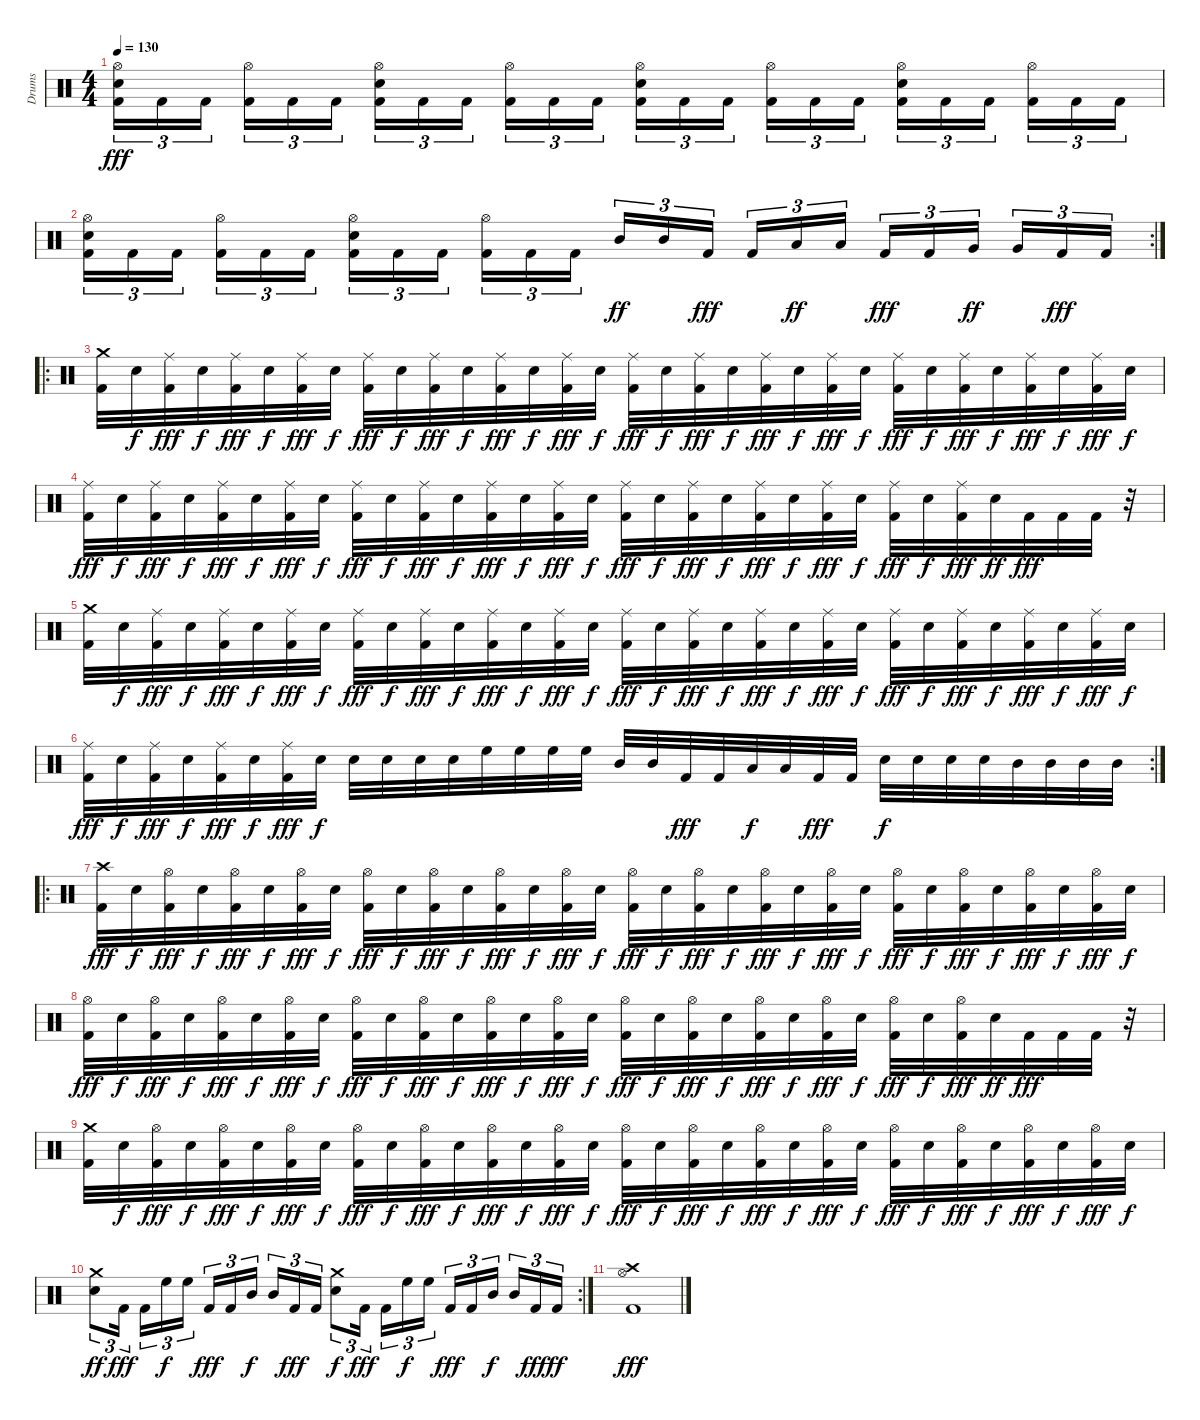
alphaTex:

\track ("Drums" "Drums") {instrument percussion}
\staff {score}
\articulation defaults
\ts (4 4)
\tempo 130
\clef neutral
\ks c
("Hi-Hat (open)" "Electric Snare (hit)" "Kick (hit) 2").16{tu (3 2) dy fff} "Kick (hit) 2".16{tu (3 2)} "Kick (hit) 2".16{tu (3 2)} ("Hi-Hat (open)" "Kick (hit) 2").16{tu (3 2)} "Kick (hit) 2".16{tu (3 2)} "Kick (hit) 2".16{tu (3 2)} ("Hi-Hat (open)" "Electric Snare (hit)" "Kick (hit) 2").16{tu (3 2)} "Kick (hit) 2".16{tu (3 2)} "Kick (hit) 2".16{tu (3 2)} ("Hi-Hat (open)" "Kick (hit) 2").16{tu (3 2)} "Kick (hit) 2".16{tu (3 2)} "Kick (hit) 2".16{tu (3 2)} ("Hi-Hat (open)" "Electric Snare (hit)" "Kick (hit) 2").16{tu (3 2)} "Kick (hit) 2".16{tu (3 2)} "Kick (hit) 2".16{tu (3 2)} ("Hi-Hat (open)" "Kick (hit) 2").16{tu (3 2)} "Kick (hit) 2".16{tu (3 2)} "Kick (hit) 2".16{tu (3 2)} ("Hi-Hat (open)" "Electric Snare (hit)" "Kick (hit) 2").16{tu (3 2)} "Kick (hit) 2".16{tu (3 2)} "Kick (hit) 2".16{tu (3 2)} ("Hi-Hat (open)" "Kick (hit) 2").16{tu (3 2)} "Kick (hit) 2".16{tu (3 2)} "Kick (hit) 2".16{tu (3 2)} |
\rc 2
("Hi-Hat (open)" "Electric Snare (hit)" "Kick (hit) 2").16{tu (3 2)} "Kick (hit) 2".16{tu (3 2)} "Kick (hit) 2".16{tu (3 2)} ("Hi-Hat (open)" "Kick (hit) 2").16{tu (3 2)} "Kick (hit) 2".16{tu (3 2)} "Kick (hit) 2".16{tu (3 2)} ("Hi-Hat (open)" "Electric Snare (hit)" "Kick (hit) 2").16{tu (3 2)} "Kick (hit) 2".16{tu (3 2)} "Kick (hit) 2".16{tu (3 2)} ("Hi-Hat (open)" "Kick (hit) 2").16{tu (3 2)} "Kick (hit) 2".16{tu (3 2)} "Kick (hit) 2".16{tu (3 2)} "Mid Tom (hit)".16{tu (3 2) dy ff} "Mid Tom (hit)".16{tu (3 2)} "Kick (hit) 2".16{tu (3 2) dy fff} "Kick (hit) 2".16{tu (3 2)} "Low Tom (hit)".16{tu (3 2) dy ff} "Low Tom (hit)".16{tu (3 2)} "Kick (hit) 2".16{tu (3 2) dy fff} "Kick (hit) 2".16{tu (3 2)} "Very Low Tom (hit)".16{tu (3 2) dy ff} "Very Low Tom (hit)".16{tu (3 2)} "Kick (hit) 2".16{tu (3 2) dy fff} "Kick (hit) 2".16{tu (3 2)} |
\ro
("Crash medium (hit)" "Kick (hit) 2").32 "Electric Snare (hit)".32{dy f} ("Ride (middle)" "Kick (hit) 2").32{dy fff} "Electric Snare (hit)".32{dy f} ("Ride (middle)" "Kick (hit) 2").32{dy fff} "Electric Snare (hit)".32{dy f} ("Ride (middle)" "Kick (hit) 2").32{dy fff} "Electric Snare (hit)".32{dy f} ("Ride (middle)" "Kick (hit) 2").32{dy fff} "Electric Snare (hit)".32{dy f} ("Ride (middle)" "Kick (hit) 2").32{dy fff} "Electric Snare (hit)".32{dy f} ("Ride (middle)" "Kick (hit) 2").32{dy fff} "Electric Snare (hit)".32{dy f} ("Ride (middle)" "Kick (hit) 2").32{dy fff} "Electric Snare (hit)".32{dy f} ("Ride (middle)" "Kick (hit) 2").32{dy fff} "Electric Snare (hit)".32{dy f} ("Ride (middle)" "Kick (hit) 2").32{dy fff} "Electric Snare (hit)".32{dy f} ("Ride (middle)" "Kick (hit) 2").32{dy fff} "Electric Snare (hit)".32{dy f} ("Ride (middle)" "Kick (hit) 2").32{dy fff} "Electric Snare (hit)".32{dy f} ("Ride (middle)" "Kick (hit) 2").32{dy fff} "Electric Snare (hit)".32{dy f} ("Ride (middle)" "Kick (hit) 2").32{dy fff} "Electric Snare (hit)".32{dy f} ("Ride (middle)" "Kick (hit) 2").32{dy fff} "Electric Snare (hit)".32{dy f} ("Ride (middle)" "Kick (hit) 2").32{dy fff} "Electric Snare (hit)".32{dy f} |
("Ride (middle)" "Kick (hit) 2").32{dy fff} "Electric Snare (hit)".32{dy f} ("Ride (middle)" "Kick (hit) 2").32{dy fff} "Electric Snare (hit)".32{dy f} ("Ride (middle)" "Kick (hit) 2").32{dy fff} "Electric Snare (hit)".32{dy f} ("Ride (middle)" "Kick (hit) 2").32{dy fff} "Electric Snare (hit)".32{dy f} ("Ride (middle)" "Kick (hit) 2").32{dy fff} "Electric Snare (hit)".32{dy f} ("Ride (middle)" "Kick (hit) 2").32{dy fff} "Electric Snare (hit)".32{dy f} ("Ride (middle)" "Kick (hit) 2").32{dy fff} "Electric Snare (hit)".32{dy f} ("Ride (middle)" "Kick (hit) 2").32{dy fff} "Electric Snare (hit)".32{dy f} ("Ride (middle)" "Kick (hit) 2").32{dy fff} "Electric Snare (hit)".32{dy f} ("Ride (middle)" "Kick (hit) 2").32{dy fff} "Electric Snare (hit)".32{dy f} ("Ride (middle)" "Kick (hit) 2").32{dy fff} "Electric Snare (hit)".32{dy f} ("Ride (middle)" "Kick (hit) 2").32{dy fff} "Electric Snare (hit)".32{dy f} ("Ride (middle)" "Kick (hit) 2").32{dy fff} "Electric Snare (hit)".32{dy f} ("Ride (middle)" "Kick (hit) 2").32{dy fff} "Electric Snare (hit)".32{dy ff} "Kick (hit) 2".32{dy fff} "Kick (hit) 2".32 "Kick (hit) 2".32 r.32 |
("Crash medium (hit)" "Kick (hit) 2").32 "Electric Snare (hit)".32{dy f} ("Ride (middle)" "Kick (hit) 2").32{dy fff} "Electric Snare (hit)".32{dy f} ("Ride (middle)" "Kick (hit) 2").32{dy fff} "Electric Snare (hit)".32{dy f} ("Ride (middle)" "Kick (hit) 2").32{dy fff} "Electric Snare (hit)".32{dy f} ("Ride (middle)" "Kick (hit) 2").32{dy fff} "Electric Snare (hit)".32{dy f} ("Ride (middle)" "Kick (hit) 2").32{dy fff} "Electric Snare (hit)".32{dy f} ("Ride (middle)" "Kick (hit) 2").32{dy fff} "Electric Snare (hit)".32{dy f} ("Ride (middle)" "Kick (hit) 2").32{dy fff} "Electric Snare (hit)".32{dy f} ("Ride (middle)" "Kick (hit) 2").32{dy fff} "Electric Snare (hit)".32{dy f} ("Ride (middle)" "Kick (hit) 2").32{dy fff} "Electric Snare (hit)".32{dy f} ("Ride (middle)" "Kick (hit) 2").32{dy fff} "Electric Snare (hit)".32{dy f} ("Ride (middle)" "Kick (hit) 2").32{dy fff} "Electric Snare (hit)".32{dy f} ("Ride (middle)" "Kick (hit) 2").32{dy fff} "Electric Snare (hit)".32{dy f} ("Ride (middle)" "Kick (hit) 2").32{dy fff} "Electric Snare (hit)".32{dy f} ("Ride (middle)" "Kick (hit) 2").32{dy fff} "Electric Snare (hit)".32{dy f} ("Ride (middle)" "Kick (hit) 2").32{dy fff} "Electric Snare (hit)".32{dy f} |
\rc 2
("Ride (middle)" "Kick (hit) 2").32{dy fff} "Electric Snare (hit)".32{dy f} ("Ride (middle)" "Kick (hit) 2").32{dy fff} "Electric Snare (hit)".32{dy f} ("Ride (middle)" "Kick (hit) 2").32{dy fff} "Electric Snare (hit)".32{dy f} ("Ride (middle)" "Kick (hit) 2").32{dy fff} "Electric Snare (hit)".32{dy f} "Electric Snare (hit)".32 "Electric Snare (hit)".32 "Electric Snare (hit)".32 "Electric Snare (hit)".32 "High Floor Tom (hit)".32 "High Floor Tom (hit)".32 "High Floor Tom (hit)".32 "High Floor Tom (hit)".32 "Mid Tom (hit)".32 "Mid Tom (hit)".32 "Kick (hit) 2".32{dy fff} "Kick (hit) 2".32 "Low Tom (hit)".32{dy f} "Low Tom (hit)".32 "Kick (hit) 2".32{dy fff} "Kick (hit) 2".32 "Electric Snare (hit)".32{dy f} "Electric Snare (hit)".32 "Electric Snare (hit)".32 "Electric Snare (hit)".32 "Mid Tom (hit)".32 "Mid Tom (hit)".32 "Mid Tom (hit)".32 "Mid Tom (hit)".32 |
\ro
("Crash high (hit)" "Kick (hit) 2").32{dy fff} "Electric Snare (hit)".32{dy f} ("Hi-Hat (open)" "Kick (hit) 2").32{dy fff} "Electric Snare (hit)".32{dy f} ("Hi-Hat (open)" "Kick (hit) 2").32{dy fff} "Electric Snare (hit)".32{dy f} ("Hi-Hat (open)" "Kick (hit) 2").32{dy fff} "Electric Snare (hit)".32{dy f} ("Hi-Hat (open)" "Kick (hit) 2").32{dy fff} "Electric Snare (hit)".32{dy f} ("Hi-Hat (open)" "Kick (hit) 2").32{dy fff} "Electric Snare (hit)".32{dy f} ("Hi-Hat (open)" "Kick (hit) 2").32{dy fff} "Electric Snare (hit)".32{dy f} ("Hi-Hat (open)" "Kick (hit) 2").32{dy fff} "Electric Snare (hit)".32{dy f} ("Hi-Hat (open)" "Kick (hit) 2").32{dy fff} "Electric Snare (hit)".32{dy f} ("Hi-Hat (open)" "Kick (hit) 2").32{dy fff} "Electric Snare (hit)".32{dy f} ("Hi-Hat (open)" "Kick (hit) 2").32{dy fff} "Electric Snare (hit)".32{dy f} ("Hi-Hat (open)" "Kick (hit) 2").32{dy fff} "Electric Snare (hit)".32{dy f} ("Hi-Hat (open)" "Kick (hit) 2").32{dy fff} "Electric Snare (hit)".32{dy f} ("Hi-Hat (open)" "Kick (hit) 2").32{dy fff} "Electric Snare (hit)".32{dy f} ("Hi-Hat (open)" "Kick (hit) 2").32{dy fff} "Electric Snare (hit)".32{dy f} ("Hi-Hat (open)" "Kick (hit) 2").32{dy fff} "Electric Snare (hit)".32{dy f} |
("Hi-Hat (open)" "Kick (hit) 2").32{dy fff} "Electric Snare (hit)".32{dy f} ("Hi-Hat (open)" "Kick (hit) 2").32{dy fff} "Electric Snare (hit)".32{dy f} ("Hi-Hat (open)" "Kick (hit) 2").32{dy fff} "Electric Snare (hit)".32{dy f} ("Hi-Hat (open)" "Kick (hit) 2").32{dy fff} "Electric Snare (hit)".32{dy f} ("Hi-Hat (open)" "Kick (hit) 2").32{dy fff} "Electric Snare (hit)".32{dy f} ("Hi-Hat (open)" "Kick (hit) 2").32{dy fff} "Electric Snare (hit)".32{dy f} ("Hi-Hat (open)" "Kick (hit) 2").32{dy fff} "Electric Snare (hit)".32{dy f} ("Hi-Hat (open)" "Kick (hit) 2").32{dy fff} "Electric Snare (hit)".32{dy f} ("Hi-Hat (open)" "Kick (hit) 2").32{dy fff} "Electric Snare (hit)".32{dy f} ("Hi-Hat (open)" "Kick (hit) 2").32{dy fff} "Electric Snare (hit)".32{dy f} ("Hi-Hat (open)" "Kick (hit) 2").32{dy fff} "Electric Snare (hit)".32{dy f} ("Hi-Hat (open)" "Kick (hit) 2").32{dy fff} "Electric Snare (hit)".32{dy f} ("Hi-Hat (open)" "Kick (hit) 2").32{dy fff} "Electric Snare (hit)".32{dy f} ("Hi-Hat (open)" "Kick (hit) 2").32{dy fff} "Electric Snare (hit)".32{dy ff} "Kick (hit) 2".32{dy fff} "Kick (hit) 2".32 "Kick (hit) 2".32 r.32 |
("Crash medium (hit)" "Kick (hit) 2").32 "Electric Snare (hit)".32{dy f} ("Hi-Hat (open)" "Kick (hit) 2").32{dy fff} "Electric Snare (hit)".32{dy f} ("Hi-Hat (open)" "Kick (hit) 2").32{dy fff} "Electric Snare (hit)".32{dy f} ("Hi-Hat (open)" "Kick (hit) 2").32{dy fff} "Electric Snare (hit)".32{dy f} ("Hi-Hat (open)" "Kick (hit) 2").32{dy fff} "Electric Snare (hit)".32{dy f} ("Hi-Hat (open)" "Kick (hit) 2").32{dy fff} "Electric Snare (hit)".32{dy f} ("Hi-Hat (open)" "Kick (hit) 2").32{dy fff} "Electric Snare (hit)".32{dy f} ("Hi-Hat (open)" "Kick (hit) 2").32{dy fff} "Electric Snare (hit)".32{dy f} ("Hi-Hat (open)" "Kick (hit) 2").32{dy fff} "Electric Snare (hit)".32{dy f} ("Hi-Hat (open)" "Kick (hit) 2").32{dy fff} "Electric Snare (hit)".32{dy f} ("Hi-Hat (open)" "Kick (hit) 2").32{dy fff} "Electric Snare (hit)".32{dy f} ("Hi-Hat (open)" "Kick (hit) 2").32{dy fff} "Electric Snare (hit)".32{dy f} ("Hi-Hat (open)" "Kick (hit) 2").32{dy fff} "Electric Snare (hit)".32{dy f} ("Hi-Hat (open)" "Kick (hit) 2").32{dy fff} "Electric Snare (hit)".32{dy f} ("Hi-Hat (open)" "Kick (hit) 2").32{dy fff} "Electric Snare (hit)".32{dy f} ("Hi-Hat (open)" "Kick (hit) 2").32{dy fff} "Electric Snare (hit)".32{dy f} |
\rc 2
("Crash medium (hit)" "Electric Snare (hit)").8{tu (3 2) dy ff} "Kick (hit) 2".16{tu (3 2) dy fff} "Kick (hit) 2".16{tu (3 2)} "High Floor Tom (hit)".16{tu (3 2) dy f} "High Floor Tom (hit)".16{tu (3 2)} "Kick (hit) 2".16{tu (3 2) dy fff} "Kick (hit) 2".16{tu (3 2)} "Mid Tom (hit)".16{tu (3 2) dy f} "Mid Tom (hit)".16{tu (3 2)} "Kick (hit) 2".16{tu (3 2) dy fff} "Kick (hit) 2".16{tu (3 2)} ("Crash medium (hit)" "Electric Snare (hit)").8{tu (3 2) dy f} "Kick (hit) 2".16{tu (3 2) dy fff} "Kick (hit) 2".16{tu (3 2)} "High Floor Tom (hit)".16{tu (3 2) dy f} "High Floor Tom (hit)".16{tu (3 2)} "Kick (hit) 2".16{tu (3 2) dy fff} "Kick (hit) 2".16{tu (3 2)} "Mid Tom (hit)".16{tu (3 2) dy f} "Mid Tom (hit)".16{tu (3 2)} "Kick (hit) 2".16{tu (3 2) dy fff} "Kick (hit) 2".16{tu (3 2) dy ff} |
("Crash high (hit)" "Hi-Hat (open)" "Kick (hit) 2").1{dy fff}
